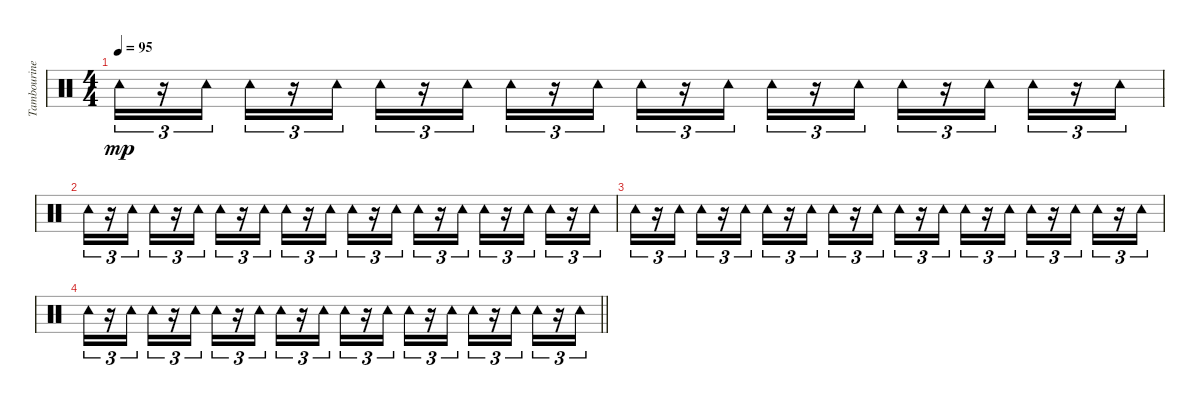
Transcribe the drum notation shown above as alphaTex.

\track ("Tambourine" "Tambourine") {instrument percussion}
\staff {score}
\articulation defaults
\ts (4 4)
\tempo 95
\clef neutral
\ks c "Tambourine (hit)".16{tu (3 2) dy mp}
r.16{tu (3 2)} "Tambourine (hit)".16{tu (3 2)} "Tambourine (hit)".16{tu (3 2)} r.16{tu (3 2)} "Tambourine (hit)".16{tu (3 2)} "Tambourine (hit)".16{tu (3 2)} r.16{tu (3 2)} "Tambourine (hit)".16{tu (3 2)} "Tambourine (hit)".16{tu (3 2)} r.16{tu (3 2)} "Tambourine (hit)".16{tu (3 2)} "Tambourine (hit)".16{tu (3 2)} r.16{tu (3 2)} "Tambourine (hit)".16{tu (3 2)} "Tambourine (hit)".16{tu (3 2)} r.16{tu (3 2)} "Tambourine (hit)".16{tu (3 2)} "Tambourine (hit)".16{tu (3 2)} r.16{tu (3 2)} "Tambourine (hit)".16{tu (3 2)} "Tambourine (hit)".16{tu (3 2)} r.16{tu (3 2)} "Tambourine (hit)".16{tu (3 2)} |
"Tambourine (hit)".16{tu (3 2)} r.16{tu (3 2)} "Tambourine (hit)".16{tu (3 2)} "Tambourine (hit)".16{tu (3 2)} r.16{tu (3 2)} "Tambourine (hit)".16{tu (3 2)} "Tambourine (hit)".16{tu (3 2)} r.16{tu (3 2)} "Tambourine (hit)".16{tu (3 2)} "Tambourine (hit)".16{tu (3 2)} r.16{tu (3 2)} "Tambourine (hit)".16{tu (3 2)} "Tambourine (hit)".16{tu (3 2)} r.16{tu (3 2)} "Tambourine (hit)".16{tu (3 2)} "Tambourine (hit)".16{tu (3 2)} r.16{tu (3 2)} "Tambourine (hit)".16{tu (3 2)} "Tambourine (hit)".16{tu (3 2)} r.16{tu (3 2)} "Tambourine (hit)".16{tu (3 2)} "Tambourine (hit)".16{tu (3 2)} r.16{tu (3 2)} "Tambourine (hit)".16{tu (3 2)} |
"Tambourine (hit)".16{tu (3 2)} r.16{tu (3 2)} "Tambourine (hit)".16{tu (3 2)} "Tambourine (hit)".16{tu (3 2)} r.16{tu (3 2)} "Tambourine (hit)".16{tu (3 2)} "Tambourine (hit)".16{tu (3 2)} r.16{tu (3 2)} "Tambourine (hit)".16{tu (3 2)} "Tambourine (hit)".16{tu (3 2)} r.16{tu (3 2)} "Tambourine (hit)".16{tu (3 2)} "Tambourine (hit)".16{tu (3 2)} r.16{tu (3 2)} "Tambourine (hit)".16{tu (3 2)} "Tambourine (hit)".16{tu (3 2)} r.16{tu (3 2)} "Tambourine (hit)".16{tu (3 2)} "Tambourine (hit)".16{tu (3 2)} r.16{tu (3 2)} "Tambourine (hit)".16{tu (3 2)} "Tambourine (hit)".16{tu (3 2)} r.16{tu (3 2)} "Tambourine (hit)".16{tu (3 2)} |
\barLineRight lightlight "Tambourine (hit)".16{tu (3 2)}
r.16{tu (3 2)} "Tambourine (hit)".16{tu (3 2)} "Tambourine (hit)".16{tu (3 2)} r.16{tu (3 2)} "Tambourine (hit)".16{tu (3 2)} "Tambourine (hit)".16{tu (3 2)} r.16{tu (3 2)} "Tambourine (hit)".16{tu (3 2)} "Tambourine (hit)".16{tu (3 2)} r.16{tu (3 2)} "Tambourine (hit)".16{tu (3 2)} "Tambourine (hit)".16{tu (3 2)} r.16{tu (3 2)} "Tambourine (hit)".16{tu (3 2)} "Tambourine (hit)".16{tu (3 2)} r.16{tu (3 2)} "Tambourine (hit)".16{tu (3 2)} "Tambourine (hit)".16{tu (3 2)} r.16{tu (3 2)} "Tambourine (hit)".16{tu (3 2)} "Tambourine (hit)".16{tu (3 2)} r.16{tu (3 2)} "Tambourine (hit)".16{tu (3 2)}
